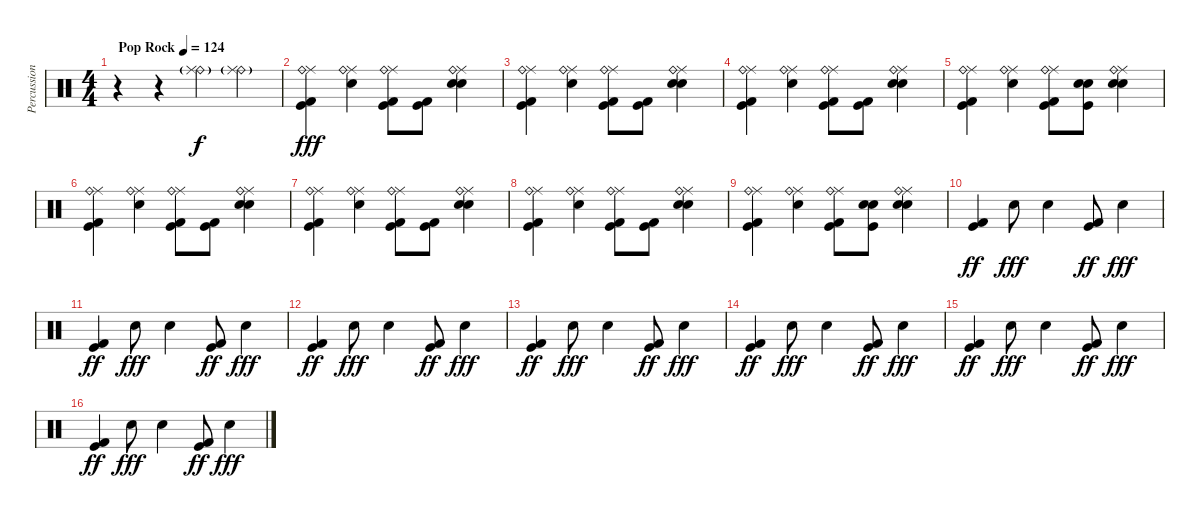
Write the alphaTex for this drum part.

\track ("Percussion" "Percussion") {instrument percussion}
\staff {score}
\articulation defaults
\ts (4 4)
\tempo (124 "Pop Rock")
\clef neutral
\ks c
r.4{dy f} r.4 ("Ride (bell)"{g} "Ride (middle)").4 ("Ride (bell)"{g} "Ride (middle)").4 |
("Ride (middle)" "Ride (bell)" "Kick (hit) 2" "Kick (hit)").4{dy fff} ("Ride (middle)" "Ride (bell)" "Snare (hit) 2").4 ("Ride (middle)" "Ride (bell)" "Kick (hit) 2" "Kick (hit)").8 ("Kick (hit) 2" "Kick (hit)").8 ("Ride (middle)" "Ride (bell)" "Snare (hit) 2" "Electric Snare (hit)").4 |
("Ride (middle)" "Ride (bell)" "Kick (hit) 2" "Kick (hit)").4 ("Ride (middle)" "Ride (bell)" "Snare (hit) 2").4 ("Ride (middle)" "Ride (bell)" "Kick (hit) 2" "Kick (hit)").8 ("Kick (hit) 2" "Kick (hit)").8 ("Ride (middle)" "Ride (bell)" "Snare (hit) 2" "Electric Snare (hit)").4 |
("Ride (middle)" "Ride (bell)" "Kick (hit) 2" "Kick (hit)").4 ("Ride (middle)" "Ride (bell)" "Snare (hit) 2").4 ("Ride (middle)" "Ride (bell)" "Kick (hit) 2" "Kick (hit)").8 ("Kick (hit) 2" "Kick (hit)").8 ("Ride (middle)" "Ride (bell)" "Snare (hit) 2" "Electric Snare (hit)").4 |
("Ride (middle)" "Ride (bell)" "Kick (hit) 2" "Kick (hit)").4 ("Ride (middle)" "Ride (bell)" "Snare (hit) 2").4 ("Ride (middle)" "Ride (bell)" "Kick (hit) 2" "Kick (hit)").8 ("Snare (hit) 2" "Kick (hit)" "Electric Snare (hit)").8 ("Ride (middle)" "Ride (bell)" "Snare (hit) 2" "Electric Snare (hit)").4 |
("Ride (middle)" "Ride (bell)" "Kick (hit) 2" "Kick (hit)").4 ("Ride (middle)" "Ride (bell)" "Snare (hit) 2").4 ("Ride (middle)" "Ride (bell)" "Kick (hit) 2" "Kick (hit)").8 ("Kick (hit) 2" "Kick (hit)").8 ("Ride (middle)" "Ride (bell)" "Snare (hit) 2" "Electric Snare (hit)").4 |
("Ride (middle)" "Ride (bell)" "Kick (hit) 2" "Kick (hit)").4 ("Ride (middle)" "Ride (bell)" "Snare (hit) 2").4 ("Ride (middle)" "Ride (bell)" "Kick (hit) 2" "Kick (hit)").8 ("Kick (hit) 2" "Kick (hit)").8 ("Ride (middle)" "Ride (bell)" "Snare (hit) 2" "Electric Snare (hit)").4 |
("Ride (middle)" "Ride (bell)" "Kick (hit) 2" "Kick (hit)").4 ("Ride (middle)" "Ride (bell)" "Snare (hit) 2").4 ("Ride (middle)" "Ride (bell)" "Kick (hit) 2" "Kick (hit)").8 ("Kick (hit) 2" "Kick (hit)").8 ("Ride (middle)" "Ride (bell)" "Snare (hit) 2" "Electric Snare (hit)").4 |
("Ride (middle)" "Ride (bell)" "Kick (hit) 2" "Kick (hit)").4 ("Ride (middle)" "Ride (bell)" "Snare (hit) 2").4 ("Ride (middle)" "Ride (bell)" "Kick (hit) 2" "Kick (hit)").8 ("Snare (hit) 2" "Kick (hit)" "Electric Snare (hit)").8 ("Ride (middle)" "Ride (bell)" "Snare (hit) 2" "Electric Snare (hit)").4 |
("Kick (hit) 2" "Kick (hit)").4{dy ff} "Hand Clap (hit)".8{dy fff} "Hand Clap (hit)".4 ("Kick (hit) 2" "Kick (hit)").8{dy ff} "Hand Clap (hit)".4{dy fff} |
("Kick (hit) 2" "Kick (hit)").4{dy ff} "Hand Clap (hit)".8{dy fff} "Hand Clap (hit)".4 ("Kick (hit) 2" "Kick (hit)").8{dy ff} "Hand Clap (hit)".4{dy fff} |
("Kick (hit) 2" "Kick (hit)").4{dy ff} "Hand Clap (hit)".8{dy fff} "Hand Clap (hit)".4 ("Kick (hit) 2" "Kick (hit)").8{dy ff} "Hand Clap (hit)".4{dy fff} |
("Kick (hit) 2" "Kick (hit)").4{dy ff} "Hand Clap (hit)".8{dy fff} "Hand Clap (hit)".4 ("Kick (hit) 2" "Kick (hit)").8{dy ff} "Hand Clap (hit)".4{dy fff} |
("Kick (hit) 2" "Kick (hit)").4{dy ff} "Hand Clap (hit)".8{dy fff} "Hand Clap (hit)".4 ("Kick (hit) 2" "Kick (hit)").8{dy ff} "Hand Clap (hit)".4{dy fff} |
("Kick (hit) 2" "Kick (hit)").4{dy ff} "Hand Clap (hit)".8{dy fff} "Hand Clap (hit)".4 ("Kick (hit) 2" "Kick (hit)").8{dy ff} "Hand Clap (hit)".4{dy fff} |
("Kick (hit) 2" "Kick (hit)").4{dy ff} "Hand Clap (hit)".8{dy fff} "Hand Clap (hit)".4 ("Kick (hit) 2" "Kick (hit)").8{dy ff} "Hand Clap (hit)".4{dy fff}
